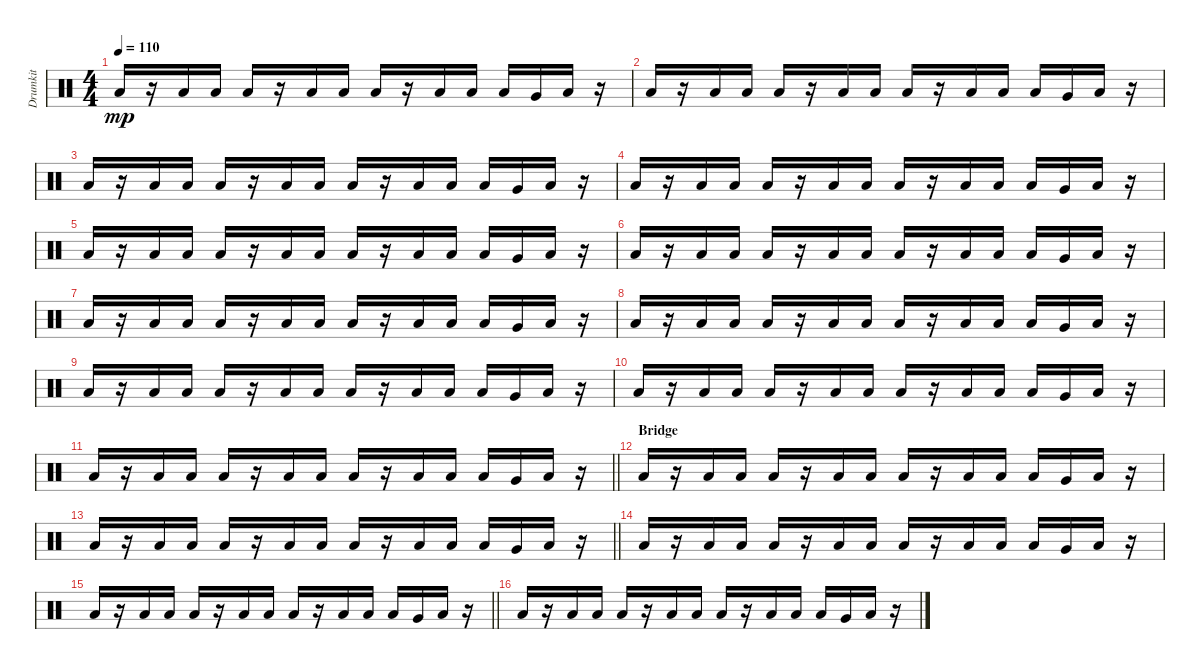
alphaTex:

\track ("Drumkit" "Drumkit") {instrument percussion}
\staff {score}
\articulation defaults
\ts (4 4)
\tempo 110
\clef neutral
\ks c "Low Tom (hit)".16{dy mp}
r.16 "Low Tom (hit)".16 "Low Tom (hit)".16 "Low Tom (hit)".16 r.16 "Low Tom (hit)".16 "Low Tom (hit)".16 "Low Tom (hit)".16 r.16 "Low Tom (hit)".16 "Low Tom (hit)".16 "Low Tom (hit)".16 "Very Low Tom (hit)".16 "Low Tom (hit)".16 r.16 |
"Low Tom (hit)".16 r.16 "Low Tom (hit)".16 "Low Tom (hit)".16 "Low Tom (hit)".16 r.16 "Low Tom (hit)".16 "Low Tom (hit)".16 "Low Tom (hit)".16 r.16 "Low Tom (hit)".16 "Low Tom (hit)".16 "Low Tom (hit)".16 "Very Low Tom (hit)".16 "Low Tom (hit)".16 r.16 |
"Low Tom (hit)".16 r.16 "Low Tom (hit)".16 "Low Tom (hit)".16 "Low Tom (hit)".16 r.16 "Low Tom (hit)".16 "Low Tom (hit)".16 "Low Tom (hit)".16 r.16 "Low Tom (hit)".16 "Low Tom (hit)".16 "Low Tom (hit)".16 "Very Low Tom (hit)".16 "Low Tom (hit)".16 r.16 |
"Low Tom (hit)".16 r.16 "Low Tom (hit)".16 "Low Tom (hit)".16 "Low Tom (hit)".16 r.16 "Low Tom (hit)".16 "Low Tom (hit)".16 "Low Tom (hit)".16 r.16 "Low Tom (hit)".16 "Low Tom (hit)".16 "Low Tom (hit)".16 "Very Low Tom (hit)".16 "Low Tom (hit)".16 r.16 |
"Low Tom (hit)".16 r.16 "Low Tom (hit)".16 "Low Tom (hit)".16 "Low Tom (hit)".16 r.16 "Low Tom (hit)".16 "Low Tom (hit)".16 "Low Tom (hit)".16 r.16 "Low Tom (hit)".16 "Low Tom (hit)".16 "Low Tom (hit)".16 "Very Low Tom (hit)".16 "Low Tom (hit)".16 r.16 |
"Low Tom (hit)".16 r.16 "Low Tom (hit)".16 "Low Tom (hit)".16 "Low Tom (hit)".16 r.16 "Low Tom (hit)".16 "Low Tom (hit)".16 "Low Tom (hit)".16 r.16 "Low Tom (hit)".16 "Low Tom (hit)".16 "Low Tom (hit)".16 "Very Low Tom (hit)".16 "Low Tom (hit)".16 r.16 |
"Low Tom (hit)".16 r.16 "Low Tom (hit)".16 "Low Tom (hit)".16 "Low Tom (hit)".16 r.16 "Low Tom (hit)".16 "Low Tom (hit)".16 "Low Tom (hit)".16 r.16 "Low Tom (hit)".16 "Low Tom (hit)".16 "Low Tom (hit)".16 "Very Low Tom (hit)".16 "Low Tom (hit)".16 r.16 |
"Low Tom (hit)".16 r.16 "Low Tom (hit)".16 "Low Tom (hit)".16 "Low Tom (hit)".16 r.16 "Low Tom (hit)".16 "Low Tom (hit)".16 "Low Tom (hit)".16 r.16 "Low Tom (hit)".16 "Low Tom (hit)".16 "Low Tom (hit)".16 "Very Low Tom (hit)".16 "Low Tom (hit)".16 r.16 |
"Low Tom (hit)".16 r.16 "Low Tom (hit)".16 "Low Tom (hit)".16 "Low Tom (hit)".16 r.16 "Low Tom (hit)".16 "Low Tom (hit)".16 "Low Tom (hit)".16 r.16 "Low Tom (hit)".16 "Low Tom (hit)".16 "Low Tom (hit)".16 "Very Low Tom (hit)".16 "Low Tom (hit)".16 r.16 |
"Low Tom (hit)".16 r.16 "Low Tom (hit)".16 "Low Tom (hit)".16 "Low Tom (hit)".16 r.16 "Low Tom (hit)".16 "Low Tom (hit)".16 "Low Tom (hit)".16 r.16 "Low Tom (hit)".16 "Low Tom (hit)".16 "Low Tom (hit)".16 "Very Low Tom (hit)".16 "Low Tom (hit)".16 r.16 |
\barLineRight lightlight "Low Tom (hit)".16
r.16 "Low Tom (hit)".16 "Low Tom (hit)".16 "Low Tom (hit)".16 r.16 "Low Tom (hit)".16 "Low Tom (hit)".16 "Low Tom (hit)".16 r.16 "Low Tom (hit)".16 "Low Tom (hit)".16 "Low Tom (hit)".16 "Very Low Tom (hit)".16 "Low Tom (hit)".16 r.16 |
\section ("" "Bridge")
"Low Tom (hit)".16 r.16 "Low Tom (hit)".16 "Low Tom (hit)".16 "Low Tom (hit)".16 r.16 "Low Tom (hit)".16 "Low Tom (hit)".16 "Low Tom (hit)".16 r.16 "Low Tom (hit)".16 "Low Tom (hit)".16 "Low Tom (hit)".16 "Very Low Tom (hit)".16 "Low Tom (hit)".16 r.16 |
\barLineRight lightlight "Low Tom (hit)".16
r.16 "Low Tom (hit)".16 "Low Tom (hit)".16 "Low Tom (hit)".16 r.16 "Low Tom (hit)".16 "Low Tom (hit)".16 "Low Tom (hit)".16 r.16 "Low Tom (hit)".16 "Low Tom (hit)".16 "Low Tom (hit)".16 "Very Low Tom (hit)".16 "Low Tom (hit)".16 r.16 |
"Low Tom (hit)".16 r.16 "Low Tom (hit)".16 "Low Tom (hit)".16 "Low Tom (hit)".16 r.16 "Low Tom (hit)".16 "Low Tom (hit)".16 "Low Tom (hit)".16 r.16 "Low Tom (hit)".16 "Low Tom (hit)".16 "Low Tom (hit)".16 "Very Low Tom (hit)".16 "Low Tom (hit)".16 r.16 |
\barLineRight lightlight "Low Tom (hit)".16
r.16 "Low Tom (hit)".16 "Low Tom (hit)".16 "Low Tom (hit)".16 r.16 "Low Tom (hit)".16 "Low Tom (hit)".16 "Low Tom (hit)".16 r.16 "Low Tom (hit)".16 "Low Tom (hit)".16 "Low Tom (hit)".16 "Very Low Tom (hit)".16 "Low Tom (hit)".16 r.16 |
"Low Tom (hit)".16 r.16 "Low Tom (hit)".16 "Low Tom (hit)".16 "Low Tom (hit)".16 r.16 "Low Tom (hit)".16 "Low Tom (hit)".16 "Low Tom (hit)".16 r.16 "Low Tom (hit)".16 "Low Tom (hit)".16 "Low Tom (hit)".16 "Very Low Tom (hit)".16 "Low Tom (hit)".16 r.16
